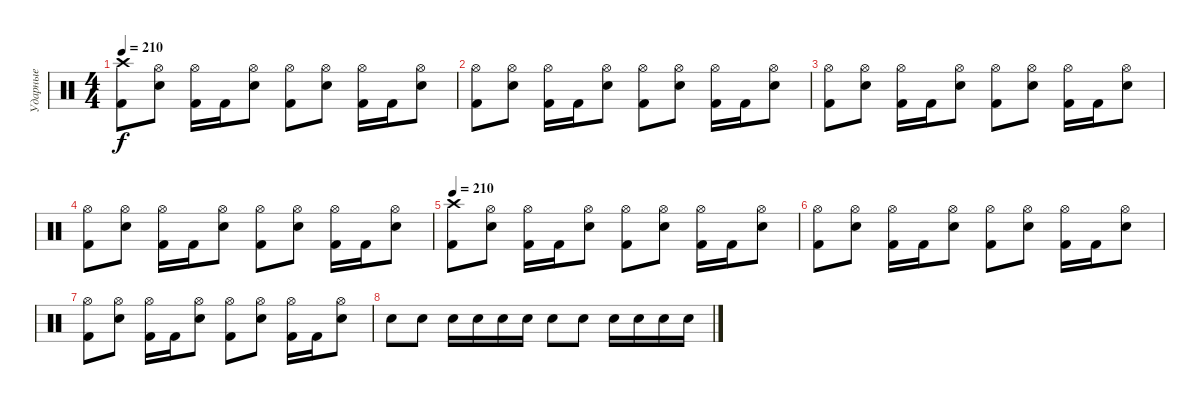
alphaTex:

\track ("Ударные" "Ударные") {instrument percussion}
\staff {score}
\articulation defaults
\ts (4 4)
\tempo 210
\clef neutral
\ks c
("Crash high (hit)" "Kick (hit) 2").8{dy f} ("Hi-Hat (open)" "Snare (hit) 2").8 ("Hi-Hat (open)" "Kick (hit) 2").16 "Kick (hit) 2".16 ("Hi-Hat (open)" "Snare (hit) 2").8 ("Hi-Hat (open)" "Kick (hit) 2").8 ("Hi-Hat (open)" "Snare (hit) 2").8 ("Hi-Hat (open)" "Kick (hit) 2").16 "Kick (hit) 2".16 ("Hi-Hat (open)" "Snare (hit) 2").8 |
("Hi-Hat (open)" "Kick (hit) 2").8 ("Hi-Hat (open)" "Snare (hit) 2").8 ("Hi-Hat (open)" "Kick (hit) 2").16 "Kick (hit) 2".16 ("Hi-Hat (open)" "Snare (hit) 2").8 ("Hi-Hat (open)" "Kick (hit) 2").8 ("Hi-Hat (open)" "Snare (hit) 2").8 ("Hi-Hat (open)" "Kick (hit) 2").16 "Kick (hit) 2".16 ("Hi-Hat (open)" "Snare (hit) 2").8 |
("Hi-Hat (open)" "Kick (hit) 2").8 ("Hi-Hat (open)" "Snare (hit) 2").8 ("Hi-Hat (open)" "Kick (hit) 2").16 "Kick (hit) 2".16 ("Hi-Hat (open)" "Snare (hit) 2").8 ("Hi-Hat (open)" "Kick (hit) 2").8 ("Hi-Hat (open)" "Snare (hit) 2").8 ("Hi-Hat (open)" "Kick (hit) 2").16 "Kick (hit) 2".16 ("Hi-Hat (open)" "Snare (hit) 2").8 |
("Hi-Hat (open)" "Kick (hit) 2").8 ("Hi-Hat (open)" "Snare (hit) 2").8 ("Hi-Hat (open)" "Kick (hit) 2").16 "Kick (hit) 2".16 ("Hi-Hat (open)" "Snare (hit) 2").8 ("Hi-Hat (open)" "Kick (hit) 2").8 ("Hi-Hat (open)" "Snare (hit) 2").8 ("Hi-Hat (open)" "Kick (hit) 2").16 "Kick (hit) 2".16 ("Hi-Hat (open)" "Snare (hit) 2").8 |
\tempo 210
("Crash high (hit)" "Kick (hit) 2").8 ("Hi-Hat (open)" "Snare (hit) 2").8 ("Hi-Hat (open)" "Kick (hit) 2").16 "Kick (hit) 2".16 ("Hi-Hat (open)" "Snare (hit) 2").8 ("Hi-Hat (open)" "Kick (hit) 2").8 ("Hi-Hat (open)" "Snare (hit) 2").8 ("Hi-Hat (open)" "Kick (hit) 2").16 "Kick (hit) 2".16 ("Hi-Hat (open)" "Snare (hit) 2").8 |
("Hi-Hat (open)" "Kick (hit) 2").8 ("Hi-Hat (open)" "Snare (hit) 2").8 ("Hi-Hat (open)" "Kick (hit) 2").16 "Kick (hit) 2".16 ("Hi-Hat (open)" "Snare (hit) 2").8 ("Hi-Hat (open)" "Kick (hit) 2").8 ("Hi-Hat (open)" "Snare (hit) 2").8 ("Hi-Hat (open)" "Kick (hit) 2").16 "Kick (hit) 2".16 ("Hi-Hat (open)" "Snare (hit) 2").8 |
("Hi-Hat (open)" "Kick (hit) 2").8 ("Hi-Hat (open)" "Snare (hit) 2").8 ("Hi-Hat (open)" "Kick (hit) 2").16 "Kick (hit) 2".16 ("Hi-Hat (open)" "Snare (hit) 2").8 ("Hi-Hat (open)" "Kick (hit) 2").8 ("Hi-Hat (open)" "Snare (hit) 2").8 ("Hi-Hat (open)" "Kick (hit) 2").16 "Kick (hit) 2".16 ("Hi-Hat (open)" "Snare (hit) 2").8 |
"Snare (hit) 2".8 "Snare (hit) 2".8 "Snare (hit) 2".16 "Snare (hit) 2".16 "Snare (hit) 2".16 "Snare (hit) 2".16 "Snare (hit) 2".8 "Snare (hit) 2".8 "Snare (hit) 2".16 "Snare (hit) 2".16 "Snare (hit) 2".16 "Snare (hit) 2".16
